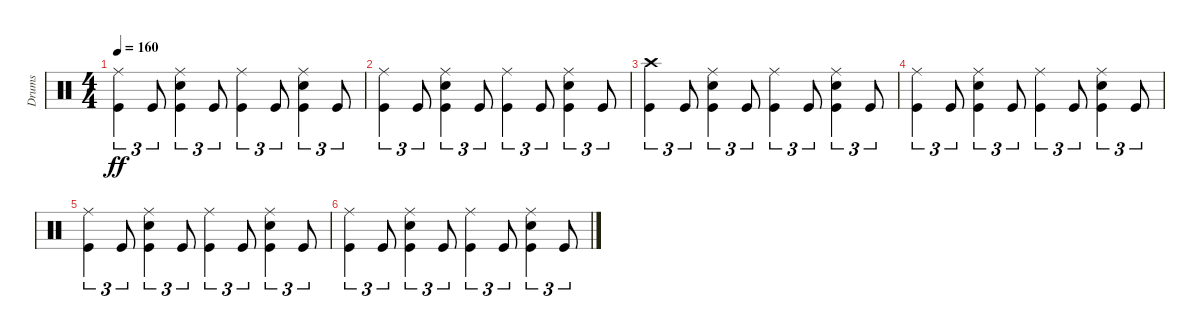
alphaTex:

\track ("Drums" "Drums") {instrument percussion}
\staff {score}
\articulation defaults
\ts (4 4)
\tempo 160
\clef neutral
\ks c
("Ride (middle)" "Kick (hit)").4{tu (3 2) dy ff} "Kick (hit)".8{tu (3 2)} ("Ride (middle)" "Electric Snare (hit)" "Kick (hit)").4{tu (3 2)} "Kick (hit)".8{tu (3 2)} ("Ride (middle)" "Kick (hit)").4{tu (3 2)} "Kick (hit)".8{tu (3 2)} ("Ride (middle)" "Electric Snare (hit)" "Kick (hit)").4{tu (3 2)} "Kick (hit)".8{tu (3 2)} |
("Ride (middle)" "Kick (hit)").4{tu (3 2)} "Kick (hit)".8{tu (3 2)} ("Ride (middle)" "Electric Snare (hit)" "Kick (hit)").4{tu (3 2)} "Kick (hit)".8{tu (3 2)} ("Ride (middle)" "Kick (hit)").4{tu (3 2)} "Kick (hit)".8{tu (3 2)} ("Ride (middle)" "Electric Snare (hit)" "Kick (hit)").4{tu (3 2)} "Kick (hit)".8{tu (3 2)} |
("Crash high (hit)" "Kick (hit)").4{tu (3 2)} "Kick (hit)".8{tu (3 2)} ("Ride (middle)" "Electric Snare (hit)" "Kick (hit)").4{tu (3 2)} "Kick (hit)".8{tu (3 2)} ("Ride (middle)" "Kick (hit)").4{tu (3 2)} "Kick (hit)".8{tu (3 2)} ("Ride (middle)" "Electric Snare (hit)" "Kick (hit)").4{tu (3 2)} "Kick (hit)".8{tu (3 2)} |
("Ride (middle)" "Kick (hit)").4{tu (3 2)} "Kick (hit)".8{tu (3 2)} ("Ride (middle)" "Electric Snare (hit)" "Kick (hit)").4{tu (3 2)} "Kick (hit)".8{tu (3 2)} ("Ride (middle)" "Kick (hit)").4{tu (3 2)} "Kick (hit)".8{tu (3 2)} ("Ride (middle)" "Electric Snare (hit)" "Kick (hit)").4{tu (3 2)} "Kick (hit)".8{tu (3 2)} |
("Ride (middle)" "Kick (hit)").4{tu (3 2)} "Kick (hit)".8{tu (3 2)} ("Ride (middle)" "Electric Snare (hit)" "Kick (hit)").4{tu (3 2)} "Kick (hit)".8{tu (3 2)} ("Ride (middle)" "Kick (hit)").4{tu (3 2)} "Kick (hit)".8{tu (3 2)} ("Ride (middle)" "Electric Snare (hit)" "Kick (hit)").4{tu (3 2)} "Kick (hit)".8{tu (3 2)} |
("Ride (middle)" "Kick (hit)").4{tu (3 2)} "Kick (hit)".8{tu (3 2)} ("Ride (middle)" "Electric Snare (hit)" "Kick (hit)").4{tu (3 2)} "Kick (hit)".8{tu (3 2)} ("Ride (middle)" "Kick (hit)").4{tu (3 2)} "Kick (hit)".8{tu (3 2)} ("Ride (middle)" "Electric Snare (hit)" "Kick (hit)").4{tu (3 2)} "Kick (hit)".8{tu (3 2)}
